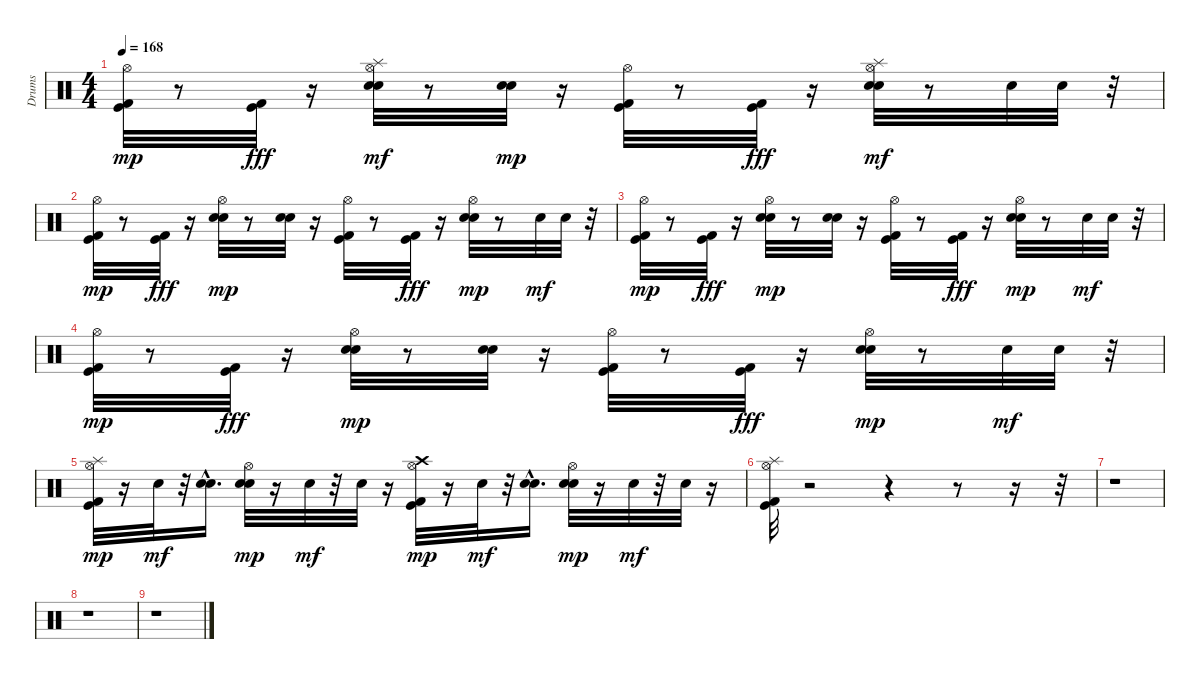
\track ("Drums" "Drums") {instrument percussion}
\staff {score}
\articulation defaults
\ts (4 4)
\tempo 168
\clef neutral
\ks c
("Kick (hit) 2" "Kick (hit)" "Hi-Hat (open)").32{dy mp} r.8 ("Kick (hit) 2" "Kick (hit)").32{dy fff} r.16 ("Snare (hit) 2" "Hand Clap (hit)" "Hi-Hat (open)" "Splash (hit)").32{dy mf} r.8 ("Snare (hit) 2" "Hand Clap (hit)").32{dy mp} r.16 ("Kick (hit) 2" "Kick (hit)" "Hi-Hat (open)").32 r.8 ("Kick (hit) 2" "Kick (hit)").32{dy fff} r.16 ("Snare (hit) 2" "Hand Clap (hit)" "Hi-Hat (open)" "Splash (hit)").32{dy mf} r.8 "Snare (hit) 2".32 "Hand Clap (hit)".32 r.32 |
("Kick (hit) 2" "Kick (hit)" "Hi-Hat (open)").32{dy mp} r.8 ("Kick (hit) 2" "Kick (hit)").32{dy fff} r.16 ("Snare (hit) 2" "Hand Clap (hit)" "Hi-Hat (open)").32{dy mp} r.8 ("Snare (hit) 2" "Hand Clap (hit)").32 r.16 ("Kick (hit) 2" "Kick (hit)" "Hi-Hat (open)").32 r.8 ("Kick (hit) 2" "Kick (hit)").32{dy fff} r.16 ("Snare (hit) 2" "Hand Clap (hit)" "Hi-Hat (open)").32{dy mp} r.8 "Snare (hit) 2".32{dy mf} "Hand Clap (hit)".32 r.32 |
("Kick (hit) 2" "Kick (hit)" "Hi-Hat (open)").32{dy mp} r.8 ("Kick (hit) 2" "Kick (hit)").32{dy fff} r.16 ("Snare (hit) 2" "Hand Clap (hit)" "Hi-Hat (open)").32{dy mp} r.8 ("Snare (hit) 2" "Hand Clap (hit)").32 r.16 ("Kick (hit) 2" "Kick (hit)" "Hi-Hat (open)").32 r.8 ("Kick (hit) 2" "Kick (hit)").32{dy fff} r.16 ("Snare (hit) 2" "Hand Clap (hit)" "Hi-Hat (open)").32{dy mp} r.8 "Snare (hit) 2".32{dy mf} "Hand Clap (hit)".32 r.32 |
("Kick (hit) 2" "Kick (hit)" "Hi-Hat (open)").32{dy mp} r.8 ("Kick (hit) 2" "Kick (hit)").32{dy fff} r.16 ("Snare (hit) 2" "Hand Clap (hit)" "Hi-Hat (open)").32{dy mp} r.8 ("Snare (hit) 2" "Hand Clap (hit)").32 r.16 ("Kick (hit) 2" "Kick (hit)" "Hi-Hat (open)").32 r.8 ("Kick (hit) 2" "Kick (hit)").32{dy fff} r.16 ("Snare (hit) 2" "Hand Clap (hit)" "Hi-Hat (open)").32{dy mp} r.8 "Snare (hit) 2".32{dy mf} "Hand Clap (hit)".32 r.32 |
("Kick (hit) 2" "Kick (hit)" "Splash (hit)" "Hi-Hat (open)").32{dy mp} r.16 "Snare (hit) 2".32{dy mf} r.32 ("Snare (hit) 2"{hac} "Snare (hit) 2").16{d} ("Snare (hit) 2" "Hand Clap (hit)" "Hi-Hat (open)").32{dy mp} r.16 "Snare (hit) 2".32{dy mf} r.32 "Snare (hit) 2".32 r.16 ("Kick (hit) 2" "Kick (hit)" "Crash high (hit)" "Hi-Hat (open)").32{dy mp} r.16 "Snare (hit) 2".32{dy mf} r.32 ("Snare (hit) 2"{hac} "Snare (hit) 2").16{d} ("Hand Clap (hit)" "Snare (hit) 2" "Hi-Hat (open)").32{dy mp} r.16 "Snare (hit) 2".32{dy mf} r.32 "Snare (hit) 2".32 r.16 |
("Kick (hit) 2" "Kick (hit)" "Hi-Hat (open)" "Splash (hit)").32 r.2 r.4 r.8 r.16 r.32 |
r.1 |
r.1 |
r.1
